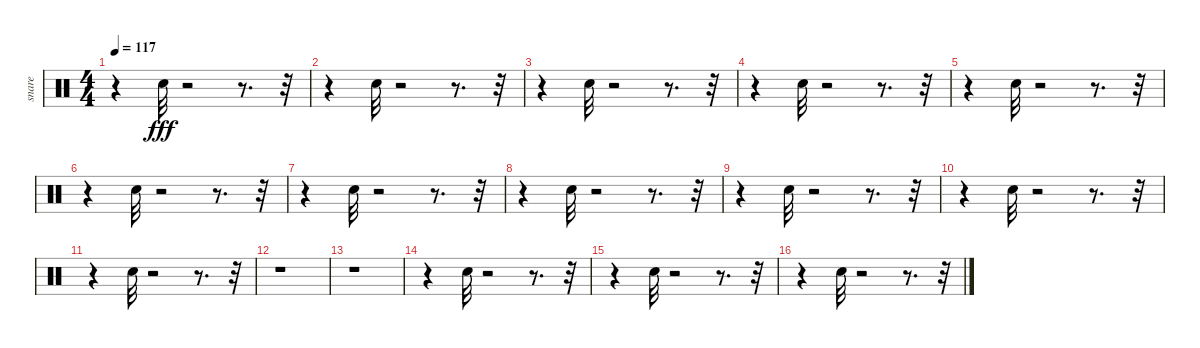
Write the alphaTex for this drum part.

\track ("snare" "snare") {instrument percussion}
\staff {score}
\articulation defaults
\ts (4 4)
\tempo 117
\clef neutral
\ks c
r.4{dy fff} "Snare (hit) 2".32 r.2 r.8{d} r.32 |
r.4 "Snare (hit) 2".32 r.2 r.8{d} r.32 |
r.4 "Snare (hit) 2".32 r.2 r.8{d} r.32 |
r.4 "Snare (hit) 2".32 r.2 r.8{d} r.32 |
r.4 "Snare (hit) 2".32 r.2 r.8{d} r.32 |
r.4 "Snare (hit) 2".32 r.2 r.8{d} r.32 |
r.4 "Snare (hit) 2".32 r.2 r.8{d} r.32 |
r.4 "Snare (hit) 2".32 r.2 r.8{d} r.32 |
r.4 "Snare (hit) 2".32 r.2 r.8{d} r.32 |
r.4 "Snare (hit) 2".32 r.2 r.8{d} r.32 |
r.4 "Snare (hit) 2".32 r.2 r.8{d} r.32 |
r.1 |
r.1 |
r.4 "Snare (hit) 2".32 r.2 r.8{d} r.32 |
r.4 "Snare (hit) 2".32 r.2 r.8{d} r.32 |
r.4 "Snare (hit) 2".32 r.2 r.8{d} r.32
